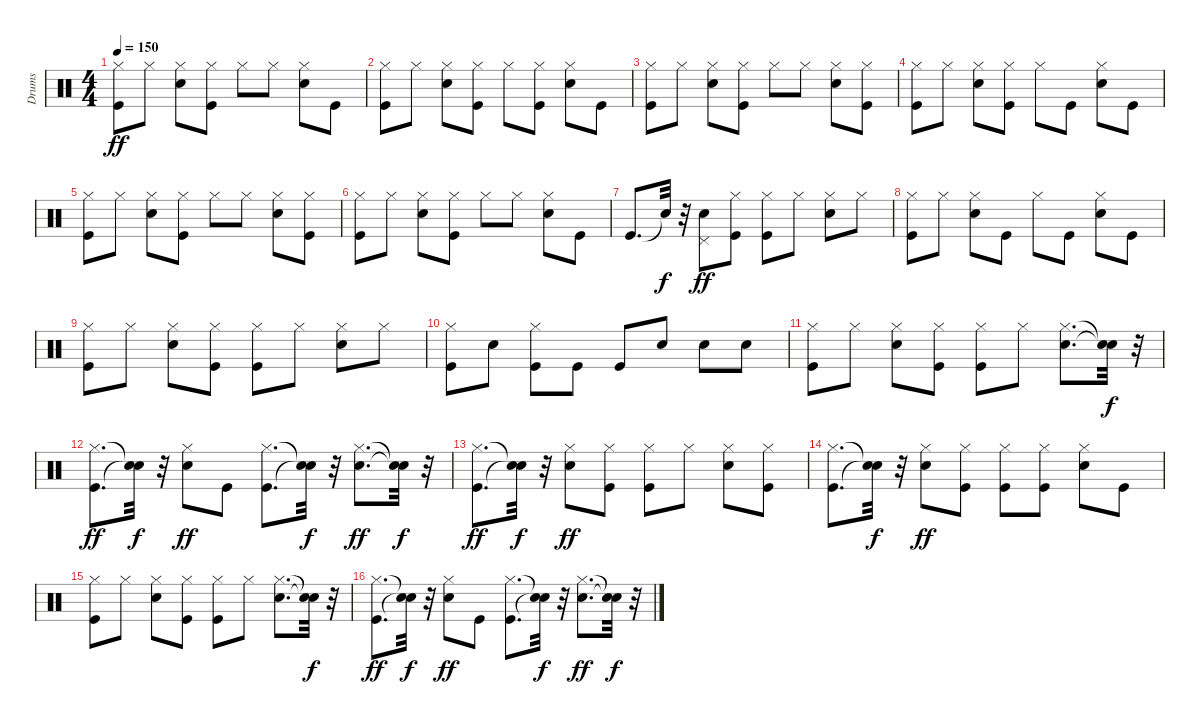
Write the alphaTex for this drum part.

\track ("Drums" "Drums") {instrument percussion}
\staff {score}
\articulation defaults
\ts (4 4)
\tempo 150
\clef neutral
\ks c
("Kick (hit)" "Hi-Hat (closed)").8{dy ff} "Hi-Hat (closed)".8 ("Snare (hit) 2" "Hi-Hat (closed)").8 ("Kick (hit)" "Hi-Hat (closed)").8 "Hi-Hat (closed)".8 "Hi-Hat (closed)".8 ("Snare (hit) 2" "Hi-Hat (closed)").8 "Kick (hit)".8 |
("Kick (hit)" "Hi-Hat (closed)").8 "Hi-Hat (closed)".8 ("Snare (hit) 2" "Hi-Hat (closed)").8 ("Kick (hit)" "Hi-Hat (closed)").8 "Hi-Hat (closed)".8 ("Kick (hit)" "Hi-Hat (closed)").8 ("Snare (hit) 2" "Hi-Hat (closed)").8 "Kick (hit)".8 |
("Kick (hit)" "Hi-Hat (closed)").8 "Hi-Hat (closed)".8 ("Snare (hit) 2" "Hi-Hat (closed)").8 ("Kick (hit)" "Hi-Hat (closed)").8 "Hi-Hat (closed)".8 "Hi-Hat (closed)".8 ("Snare (hit) 2" "Hi-Hat (closed)").8 ("Kick (hit)" "Hi-Hat (closed)").8 |
("Kick (hit)" "Hi-Hat (closed)").8 "Hi-Hat (closed)".8 ("Snare (hit) 2" "Hi-Hat (closed)").8 ("Kick (hit)" "Hi-Hat (closed)").8 "Hi-Hat (closed)".8 "Kick (hit)".8 ("Snare (hit) 2" "Hi-Hat (closed)").8 "Kick (hit)".8 |
("Kick (hit)" "Hi-Hat (closed)").8 "Hi-Hat (closed)".8 ("Snare (hit) 2" "Hi-Hat (closed)").8 ("Kick (hit)" "Hi-Hat (closed)").8 "Hi-Hat (closed)".8 "Hi-Hat (closed)".8 ("Snare (hit) 2" "Hi-Hat (closed)").8 ("Kick (hit)" "Hi-Hat (closed)").8 |
("Kick (hit)" "Hi-Hat (closed)").8 "Hi-Hat (closed)".8 ("Snare (hit) 2" "Hi-Hat (closed)").8 ("Kick (hit)" "Hi-Hat (closed)").8 "Hi-Hat (closed)".8 "Hi-Hat (closed)".8 ("Snare (hit) 2" "Hi-Hat (closed)").8 "Kick (hit)".8 |
"Kick (hit)".8{d} "Snare (hit)"{t}.32{dy f} r.32 ("Snare (hit) 2" "Pedal Hi-Hat (hit)").8{dy ff} ("Kick (hit)" "Hi-Hat (closed)").8 ("Kick (hit)" "Hi-Hat (closed)").8 "Hi-Hat (closed)".8 ("Snare (hit) 2" "Hi-Hat (closed)").8 "Hi-Hat (closed)".8 |
("Kick (hit)" "Hi-Hat (closed)").8 "Hi-Hat (closed)".8 ("Snare (hit) 2" "Hi-Hat (closed)").8 "Kick (hit)".8 "Hi-Hat (closed)".8 "Kick (hit)".8 ("Snare (hit) 2" "Hi-Hat (closed)").8 "Kick (hit)".8 |
("Kick (hit)" "Hi-Hat (closed)").8 "Hi-Hat (closed)".8 ("Snare (hit) 2" "Hi-Hat (closed)").8 ("Kick (hit)" "Hi-Hat (closed)").8 ("Kick (hit)" "Hi-Hat (closed)").8 "Hi-Hat (closed)".8 ("Snare (hit) 2" "Hi-Hat (closed)").8 "Hi-Hat (closed)".8 |
("Kick (hit)" "Hi-Hat (closed)").8 "Snare (hit) 2".8 ("Kick (hit)" "Hi-Hat (closed)").8 "Kick (hit)".8 "Kick (hit)".8 "Snare (hit) 2".8 "Snare (hit) 2".8 "Snare (hit) 2".8 |
("Kick (hit)" "Hi-Hat (closed)").8 "Hi-Hat (closed)".8 ("Snare (hit) 2" "Hi-Hat (closed)").8 ("Kick (hit)" "Hi-Hat (closed)").8 ("Kick (hit)" "Hi-Hat (closed)").8 "Hi-Hat (closed)".8 ("Snare (hit) 2" "Hi-Hat (closed)").8{d} ("Snare (hit)"{t} "Snare (hit)"{t}).32{dy f} r.32 |
("Kick (hit)" "Hi-Hat (closed)").8{d dy ff} ("Snare (hit)"{t} "Snare (hit)"{t}).32{dy f} r.32 ("Snare (hit) 2" "Hi-Hat (closed)").8{dy ff} "Kick (hit)".8 ("Kick (hit)" "Hi-Hat (closed)").8{d} ("Snare (hit)"{t} "Snare (hit)"{t}).32{dy f} r.32 ("Snare (hit) 2" "Hi-Hat (closed)").8{d dy ff} ("Snare (hit)"{t} "Snare (hit)"{t}).32{dy f} r.32 |
("Kick (hit)" "Hi-Hat (closed)").8{d dy ff} ("Snare (hit)"{t} "Snare (hit)"{t}).32{dy f} r.32 ("Snare (hit) 2" "Hi-Hat (closed)").8{dy ff} ("Kick (hit)" "Hi-Hat (closed)").8 ("Kick (hit)" "Hi-Hat (closed)").8 "Hi-Hat (closed)".8 ("Snare (hit) 2" "Hi-Hat (closed)").8 ("Kick (hit)" "Hi-Hat (closed)").8 |
("Kick (hit)" "Hi-Hat (closed)").8{d} ("Snare (hit)"{t} "Snare (hit)"{t}).32{dy f} r.32 ("Snare (hit) 2" "Hi-Hat (closed)").8{dy ff} ("Kick (hit)" "Hi-Hat (closed)").8 ("Kick (hit)" "Hi-Hat (closed)").8 ("Kick (hit)" "Hi-Hat (closed)").8 ("Snare (hit) 2" "Hi-Hat (closed)").8 "Kick (hit)".8 |
("Kick (hit)" "Hi-Hat (closed)").8 "Hi-Hat (closed)".8 ("Snare (hit) 2" "Hi-Hat (closed)").8 ("Kick (hit)" "Hi-Hat (closed)").8 ("Kick (hit)" "Hi-Hat (closed)").8 "Hi-Hat (closed)".8 ("Snare (hit) 2" "Hi-Hat (closed)").8{d} ("Snare (hit)"{t} "Snare (hit)"{t}).32{dy f} r.32 |
("Kick (hit)" "Hi-Hat (closed)").8{d dy ff} ("Snare (hit)"{t} "Snare (hit)"{t}).32{dy f} r.32 ("Snare (hit) 2" "Hi-Hat (closed)").8{dy ff} "Kick (hit)".8 ("Kick (hit)" "Hi-Hat (closed)").8{d} ("Snare (hit)"{t} "Snare (hit)"{t}).32{dy f} r.32 ("Snare (hit) 2" "Hi-Hat (closed)").8{d dy ff} ("Snare (hit)"{t} "Snare (hit)"{t}).32{dy f} r.32
